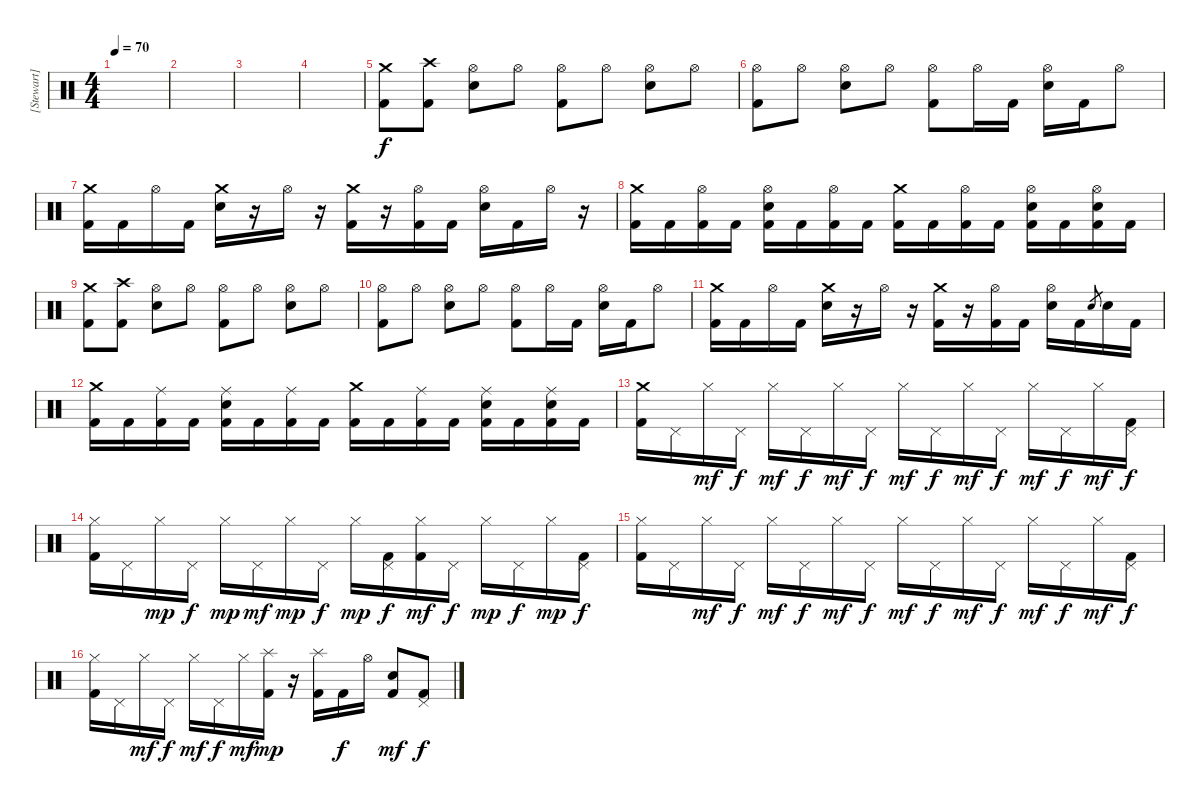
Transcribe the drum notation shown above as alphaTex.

\track ("[Stewart]" "[Stewart]") {instrument percussion}
\staff {score}
\articulation defaults
\ts (4 4)
\tempo 70
\clef neutral
\ks c
|
|
|
|
("Kick (hit) 2" "Crash medium (hit)").8 ("Kick (hit) 2" "Crash high (hit)").8 ("Electric Snare (hit)" "Hi-Hat (open)").8 "Hi-Hat (open)".8 ("Kick (hit) 2" "Hi-Hat (open)").8 "Hi-Hat (open)".8 ("Electric Snare (hit)" "Hi-Hat (open)").8 "Hi-Hat (open)".8 |
("Kick (hit) 2" "Hi-Hat (open)").8 "Hi-Hat (open)".8 ("Electric Snare (hit)" "Hi-Hat (open)").8 "Hi-Hat (open)".8 ("Kick (hit) 2" "Hi-Hat (open)").8 "Hi-Hat (open)".16 "Kick (hit) 2".16 ("Electric Snare (hit)" "Hi-Hat (open)").16 "Kick (hit) 2".16 "Hi-Hat (open)".8 |
("Kick (hit) 2" "Crash medium (hit)").16 "Kick (hit) 2".16 "Hi-Hat (open)".16 "Kick (hit) 2".16 ("Electric Snare (hit)" "Crash medium (hit)").16 r.16 "Hi-Hat (open)".16 r.16 ("Kick (hit) 2" "Crash medium (hit)").16 r.16 ("Kick (hit) 2" "Hi-Hat (open)").16 "Kick (hit) 2".16 ("Electric Snare (hit)" "Hi-Hat (open)").16 "Kick (hit) 2".16 "Hi-Hat (open)".16 r.16 |
("Kick (hit) 2" "Crash medium (hit)").16 "Kick (hit) 2".16 ("Kick (hit) 2" "Hi-Hat (open)").16 "Kick (hit) 2".16 ("Kick (hit) 2" "Electric Snare (hit)" "Hi-Hat (open)").16 "Kick (hit) 2".16 ("Kick (hit) 2" "Hi-Hat (open)").16 "Kick (hit) 2".16 ("Kick (hit) 2" "Crash medium (hit)").16 "Kick (hit) 2".16 ("Kick (hit) 2" "Hi-Hat (open)").16 "Kick (hit) 2".16 ("Kick (hit) 2" "Electric Snare (hit)" "Hi-Hat (open)").16 "Kick (hit) 2".16 ("Kick (hit) 2" "Electric Snare (hit)" "Hi-Hat (open)").16 "Kick (hit) 2".16 |
("Kick (hit) 2" "Crash medium (hit)").8 ("Kick (hit) 2" "Crash high (hit)").8 ("Electric Snare (hit)" "Hi-Hat (open)").8 "Hi-Hat (open)".8 ("Kick (hit) 2" "Hi-Hat (open)").8 "Hi-Hat (open)".8 ("Electric Snare (hit)" "Hi-Hat (open)").8 "Hi-Hat (open)".8 |
("Kick (hit) 2" "Hi-Hat (open)").8 "Hi-Hat (open)".8 ("Electric Snare (hit)" "Hi-Hat (open)").8 "Hi-Hat (open)".8 ("Kick (hit) 2" "Hi-Hat (open)").8 "Hi-Hat (open)".16 "Kick (hit) 2".16 ("Electric Snare (hit)" "Hi-Hat (open)").16 "Kick (hit) 2".16 "Hi-Hat (open)".8 |
("Kick (hit) 2" "Crash medium (hit)").16 "Kick (hit) 2".16 "Hi-Hat (open)".16 "Kick (hit) 2".16 ("Electric Snare (hit)" "Crash medium (hit)").16 r.16 "Hi-Hat (open)".16 r.16 ("Kick (hit) 2" "Crash medium (hit)").16 r.16 ("Kick (hit) 2" "Hi-Hat (open)").16 "Kick (hit) 2".16 ("Electric Snare (hit)" "Hi-Hat (open)").16 "Kick (hit) 2".16 "Electric Snare (hit)".8{gr} "Electric Snare (hit)".16 "Kick (hit) 2".16 |
("Kick (hit) 2" "Crash medium (hit)").16 "Kick (hit) 2".16 ("Kick (hit) 2" "Ride (middle)").16 "Kick (hit) 2".16 ("Kick (hit) 2" "Electric Snare (hit)" "Ride (middle)").16 "Kick (hit) 2".16 ("Kick (hit) 2" "Ride (middle)").16 "Kick (hit) 2".16 ("Kick (hit) 2" "Crash medium (hit)").16 "Kick (hit) 2".16 ("Kick (hit) 2" "Ride (middle)").16 "Kick (hit) 2".16 ("Kick (hit) 2" "Electric Snare (hit)" "Ride (middle)").16 "Kick (hit) 2".16 ("Kick (hit) 2" "Electric Snare (hit)" "Ride (middle)").16 "Kick (hit) 2".16 |
("Kick (hit) 2" "Crash medium (hit)").16 "Pedal Hi-Hat (hit)".16 "Hi-Hat (closed)".16{dy mf} "Pedal Hi-Hat (hit)".16{dy f} "Hi-Hat (closed)".16{dy mf} "Pedal Hi-Hat (hit)".16{dy f} "Hi-Hat (closed)".16{dy mf} "Pedal Hi-Hat (hit)".16{dy f} "Hi-Hat (closed)".16{dy mf} "Pedal Hi-Hat (hit)".16{dy f} "Hi-Hat (closed)".16{dy mf} "Pedal Hi-Hat (hit)".16{dy f} "Hi-Hat (closed)".16{dy mf} "Pedal Hi-Hat (hit)".16{dy f} "Hi-Hat (closed)".16{dy mf} ("Kick (hit) 2" "Pedal Hi-Hat (hit)").16{dy f} |
("Kick (hit) 2" "Hi-Hat (closed)").16 "Pedal Hi-Hat (hit)".16 "Hi-Hat (closed)".16{dy mp} "Pedal Hi-Hat (hit)".16{dy f} "Hi-Hat (closed)".16{dy mp} "Pedal Hi-Hat (hit)".16{dy mf} "Hi-Hat (closed)".16{dy mp} "Pedal Hi-Hat (hit)".16{dy f} "Hi-Hat (closed)".16{dy mp} ("Kick (hit) 2" "Pedal Hi-Hat (hit)").16{dy f} ("Kick (hit) 2" "Hi-Hat (closed)").16{dy mf} "Pedal Hi-Hat (hit)".16{dy f} "Hi-Hat (closed)".16{dy mp} "Pedal Hi-Hat (hit)".16{dy f} "Hi-Hat (closed)".16{dy mp} ("Kick (hit) 2" "Pedal Hi-Hat (hit)").16{dy f} |
("Kick (hit) 2" "Hi-Hat (closed)").16 "Pedal Hi-Hat (hit)".16 "Hi-Hat (closed)".16{dy mf} "Pedal Hi-Hat (hit)".16{dy f} "Hi-Hat (closed)".16{dy mf} "Pedal Hi-Hat (hit)".16{dy f} "Hi-Hat (closed)".16{dy mf} "Pedal Hi-Hat (hit)".16{dy f} "Hi-Hat (closed)".16{dy mf} "Pedal Hi-Hat (hit)".16{dy f} "Hi-Hat (closed)".16{dy mf} "Pedal Hi-Hat (hit)".16{dy f} "Hi-Hat (closed)".16{dy mf} "Pedal Hi-Hat (hit)".16{dy f} "Hi-Hat (closed)".16{dy mf} ("Kick (hit) 2" "Pedal Hi-Hat (hit)").16{dy f} |
("Kick (hit) 2" "Hi-Hat (closed)").16 "Pedal Hi-Hat (hit)".16 "Hi-Hat (closed)".16{dy mf} "Pedal Hi-Hat (hit)".16{dy f} "Hi-Hat (closed)".16{dy mf} "Pedal Hi-Hat (hit)".16{dy f} "Hi-Hat (closed)".16{dy mf} ("Kick (hit) 2" "Splash (hit)").16{dy mp} r.16 ("Kick (hit) 2" "Splash (hit)").16 "Kick (hit) 2".16{dy f} "Hi-Hat (open)".16 ("Kick (hit) 2" "Electric Snare (hit)").8{dy mf} ("Kick (hit) 2" "Pedal Hi-Hat (hit)").8{dy f}
